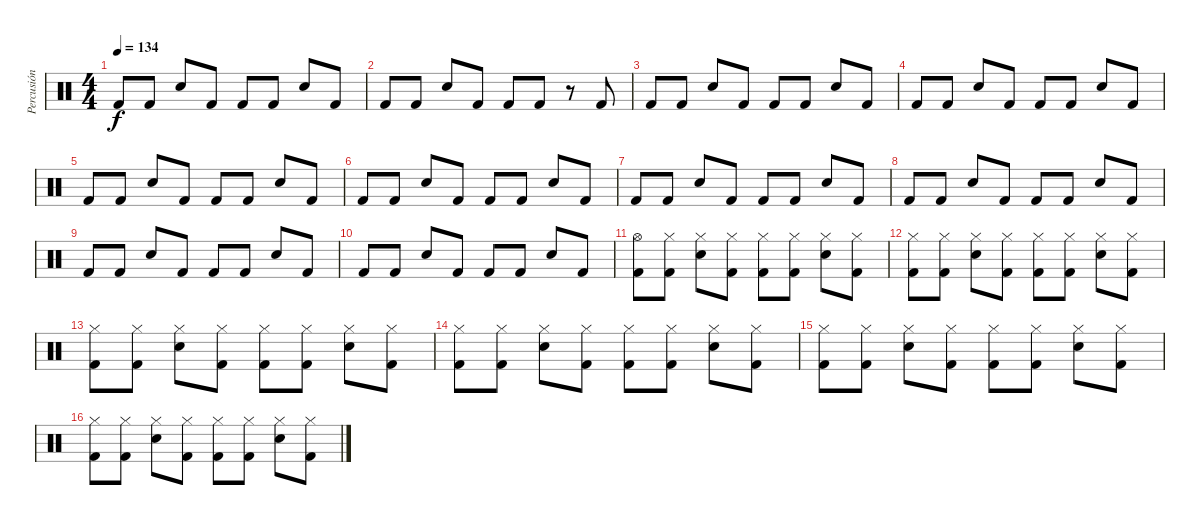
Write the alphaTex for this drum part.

\track ("Percusión" "Percusión") {instrument percussion}
\staff {score}
\articulation defaults
\ts (4 4)
\tempo 134
\clef neutral
\ks c "Kick (hit) 2".8{dy f} "Kick (hit) 2".8 "Snare (hit) 2".8 "Kick (hit) 2".8 "Kick (hit) 2".8 "Kick (hit) 2".8 "Snare (hit) 2".8 "Kick (hit) 2".8
|
"Kick (hit) 2".8 "Kick (hit) 2".8 "Snare (hit) 2".8 "Kick (hit) 2".8 "Kick (hit) 2".8 "Kick (hit) 2".8 r.8 "Kick (hit) 2".8 |
"Kick (hit) 2".8 "Kick (hit) 2".8 "Snare (hit) 2".8 "Kick (hit) 2".8 "Kick (hit) 2".8 "Kick (hit) 2".8 "Snare (hit) 2".8 "Kick (hit) 2".8 |
"Kick (hit) 2".8 "Kick (hit) 2".8 "Snare (hit) 2".8 "Kick (hit) 2".8 "Kick (hit) 2".8 "Kick (hit) 2".8 "Snare (hit) 2".8 "Kick (hit) 2".8 |
"Kick (hit) 2".8 "Kick (hit) 2".8 "Snare (hit) 2".8 "Kick (hit) 2".8 "Kick (hit) 2".8 "Kick (hit) 2".8 "Snare (hit) 2".8 "Kick (hit) 2".8 |
"Kick (hit) 2".8 "Kick (hit) 2".8 "Snare (hit) 2".8 "Kick (hit) 2".8 "Kick (hit) 2".8 "Kick (hit) 2".8 "Snare (hit) 2".8 "Kick (hit) 2".8 |
"Kick (hit) 2".8 "Kick (hit) 2".8 "Snare (hit) 2".8 "Kick (hit) 2".8 "Kick (hit) 2".8 "Kick (hit) 2".8 "Snare (hit) 2".8 "Kick (hit) 2".8 |
"Kick (hit) 2".8 "Kick (hit) 2".8 "Snare (hit) 2".8 "Kick (hit) 2".8 "Kick (hit) 2".8 "Kick (hit) 2".8 "Snare (hit) 2".8 "Kick (hit) 2".8 |
"Kick (hit) 2".8 "Kick (hit) 2".8 "Snare (hit) 2".8 "Kick (hit) 2".8 "Kick (hit) 2".8 "Kick (hit) 2".8 "Snare (hit) 2".8 "Kick (hit) 2".8 |
"Kick (hit) 2".8 "Kick (hit) 2".8 "Snare (hit) 2".8 "Kick (hit) 2".8 "Kick (hit) 2".8 "Kick (hit) 2".8 "Snare (hit) 2".8 "Kick (hit) 2".8 |
("Hi-Hat (open)" "Kick (hit) 2").8 ("Hi-Hat (closed)" "Kick (hit) 2").8 ("Hi-Hat (closed)" "Snare (hit) 2").8 ("Hi-Hat (closed)" "Kick (hit) 2").8 ("Hi-Hat (closed)" "Kick (hit) 2").8 ("Hi-Hat (closed)" "Kick (hit) 2").8 ("Hi-Hat (closed)" "Snare (hit) 2").8 ("Hi-Hat (closed)" "Kick (hit) 2").8 |
("Hi-Hat (closed)" "Kick (hit) 2").8 ("Hi-Hat (closed)" "Kick (hit) 2").8 ("Hi-Hat (closed)" "Snare (hit) 2").8 ("Hi-Hat (closed)" "Kick (hit) 2").8 ("Hi-Hat (closed)" "Kick (hit) 2").8 ("Hi-Hat (closed)" "Kick (hit) 2").8 ("Hi-Hat (closed)" "Snare (hit) 2").8 ("Hi-Hat (closed)" "Kick (hit) 2").8 |
("Hi-Hat (closed)" "Kick (hit) 2").8 ("Hi-Hat (closed)" "Kick (hit) 2").8 ("Hi-Hat (closed)" "Snare (hit) 2").8 ("Hi-Hat (closed)" "Kick (hit) 2").8 ("Hi-Hat (closed)" "Kick (hit) 2").8 ("Hi-Hat (closed)" "Kick (hit) 2").8 ("Hi-Hat (closed)" "Snare (hit) 2").8 ("Hi-Hat (closed)" "Kick (hit) 2").8 |
("Hi-Hat (closed)" "Kick (hit) 2").8 ("Hi-Hat (closed)" "Kick (hit) 2").8 ("Hi-Hat (closed)" "Snare (hit) 2").8 ("Hi-Hat (closed)" "Kick (hit) 2").8 ("Hi-Hat (closed)" "Kick (hit) 2").8 ("Hi-Hat (closed)" "Kick (hit) 2").8 ("Hi-Hat (closed)" "Snare (hit) 2").8 ("Hi-Hat (closed)" "Kick (hit) 2").8 |
("Hi-Hat (closed)" "Kick (hit) 2").8 ("Hi-Hat (closed)" "Kick (hit) 2").8 ("Hi-Hat (closed)" "Snare (hit) 2").8 ("Hi-Hat (closed)" "Kick (hit) 2").8 ("Hi-Hat (closed)" "Kick (hit) 2").8 ("Hi-Hat (closed)" "Kick (hit) 2").8 ("Hi-Hat (closed)" "Snare (hit) 2").8 ("Hi-Hat (closed)" "Kick (hit) 2").8 |
("Hi-Hat (closed)" "Kick (hit) 2").8 ("Hi-Hat (closed)" "Kick (hit) 2").8 ("Hi-Hat (closed)" "Snare (hit) 2").8 ("Hi-Hat (closed)" "Kick (hit) 2").8 ("Hi-Hat (closed)" "Kick (hit) 2").8 ("Hi-Hat (closed)" "Kick (hit) 2").8 ("Hi-Hat (closed)" "Snare (hit) 2").8 ("Hi-Hat (closed)" "Kick (hit) 2").8
